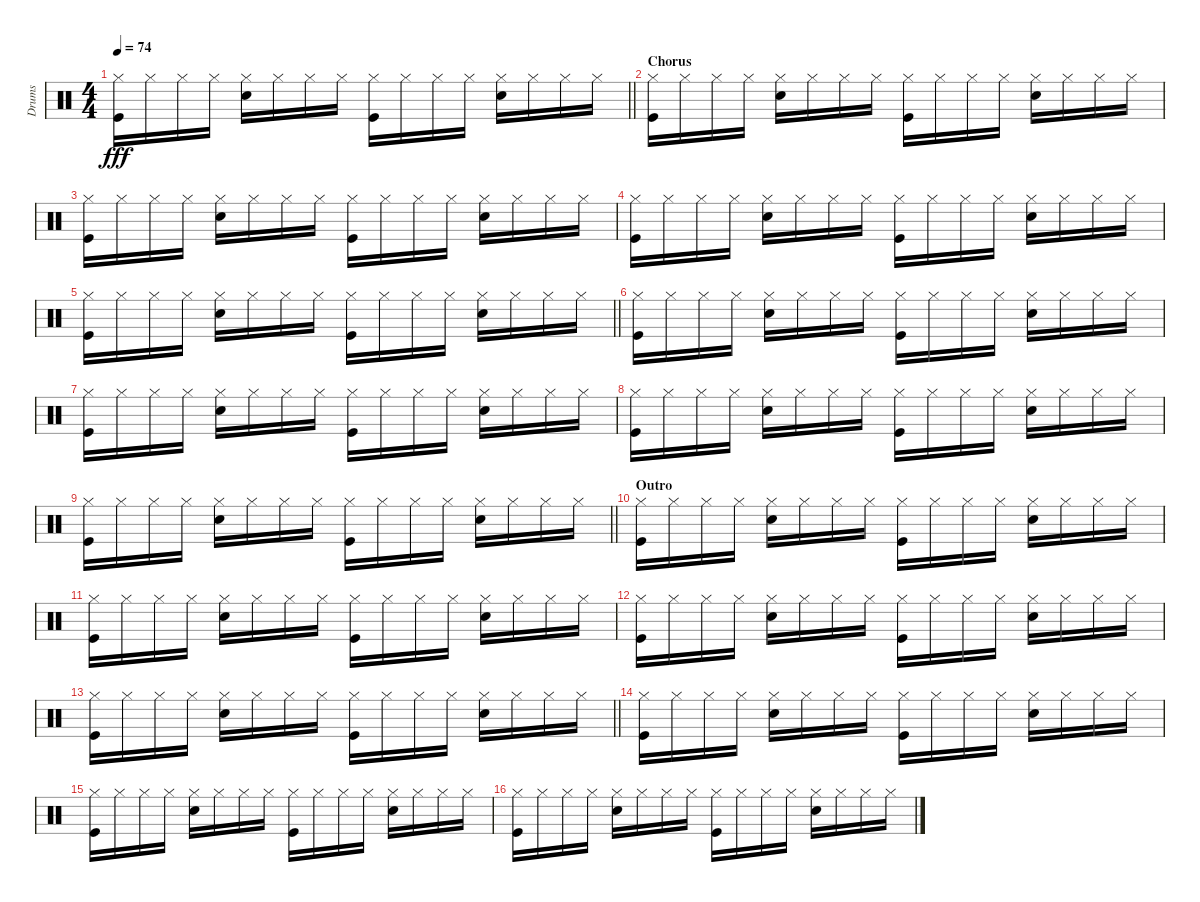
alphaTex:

\track ("Drums" "Drums") {instrument percussion}
\staff {score}
\articulation defaults
\ts (4 4)
\tempo 74
\clef neutral
\barLineRight lightlight
\ks c
("Hi-Hat (closed)" "Kick (hit)").16{dy fff} "Hi-Hat (closed)".16 "Hi-Hat (closed)".16 "Hi-Hat (closed)".16 ("Hi-Hat (closed)" "Snare (hit) 2").16 "Hi-Hat (closed)".16 "Hi-Hat (closed)".16 "Hi-Hat (closed)".16 ("Hi-Hat (closed)" "Kick (hit)").16 "Hi-Hat (closed)".16 "Hi-Hat (closed)".16 "Hi-Hat (closed)".16 ("Hi-Hat (closed)" "Snare (hit) 2").16 "Hi-Hat (closed)".16 "Hi-Hat (closed)".16 "Hi-Hat (closed)".16 |
\section ("" "Chorus")
("Hi-Hat (closed)" "Kick (hit)").16 "Hi-Hat (closed)".16 "Hi-Hat (closed)".16 "Hi-Hat (closed)".16 ("Hi-Hat (closed)" "Snare (hit) 2").16 "Hi-Hat (closed)".16 "Hi-Hat (closed)".16 "Hi-Hat (closed)".16 ("Hi-Hat (closed)" "Kick (hit)").16 "Hi-Hat (closed)".16 "Hi-Hat (closed)".16 "Hi-Hat (closed)".16 ("Hi-Hat (closed)" "Snare (hit) 2").16 "Hi-Hat (closed)".16 "Hi-Hat (closed)".16 "Hi-Hat (closed)".16 |
("Hi-Hat (closed)" "Kick (hit)").16 "Hi-Hat (closed)".16 "Hi-Hat (closed)".16 "Hi-Hat (closed)".16 ("Hi-Hat (closed)" "Snare (hit) 2").16 "Hi-Hat (closed)".16 "Hi-Hat (closed)".16 "Hi-Hat (closed)".16 ("Hi-Hat (closed)" "Kick (hit)").16 "Hi-Hat (closed)".16 "Hi-Hat (closed)".16 "Hi-Hat (closed)".16 ("Hi-Hat (closed)" "Snare (hit) 2").16 "Hi-Hat (closed)".16 "Hi-Hat (closed)".16 "Hi-Hat (closed)".16 |
("Hi-Hat (closed)" "Kick (hit)").16 "Hi-Hat (closed)".16 "Hi-Hat (closed)".16 "Hi-Hat (closed)".16 ("Hi-Hat (closed)" "Snare (hit) 2").16 "Hi-Hat (closed)".16 "Hi-Hat (closed)".16 "Hi-Hat (closed)".16 ("Hi-Hat (closed)" "Kick (hit)").16 "Hi-Hat (closed)".16 "Hi-Hat (closed)".16 "Hi-Hat (closed)".16 ("Hi-Hat (closed)" "Snare (hit) 2").16 "Hi-Hat (closed)".16 "Hi-Hat (closed)".16 "Hi-Hat (closed)".16 |
\barLineRight lightlight
("Hi-Hat (closed)" "Kick (hit)").16 "Hi-Hat (closed)".16 "Hi-Hat (closed)".16 "Hi-Hat (closed)".16 ("Hi-Hat (closed)" "Snare (hit) 2").16 "Hi-Hat (closed)".16 "Hi-Hat (closed)".16 "Hi-Hat (closed)".16 ("Hi-Hat (closed)" "Kick (hit)").16 "Hi-Hat (closed)".16 "Hi-Hat (closed)".16 "Hi-Hat (closed)".16 ("Hi-Hat (closed)" "Snare (hit) 2").16 "Hi-Hat (closed)".16 "Hi-Hat (closed)".16 "Hi-Hat (closed)".16 |
("Hi-Hat (closed)" "Kick (hit)").16 "Hi-Hat (closed)".16 "Hi-Hat (closed)".16 "Hi-Hat (closed)".16 ("Hi-Hat (closed)" "Snare (hit) 2").16 "Hi-Hat (closed)".16 "Hi-Hat (closed)".16 "Hi-Hat (closed)".16 ("Hi-Hat (closed)" "Kick (hit)").16 "Hi-Hat (closed)".16 "Hi-Hat (closed)".16 "Hi-Hat (closed)".16 ("Hi-Hat (closed)" "Snare (hit) 2").16 "Hi-Hat (closed)".16 "Hi-Hat (closed)".16 "Hi-Hat (closed)".16 |
("Hi-Hat (closed)" "Kick (hit)").16 "Hi-Hat (closed)".16 "Hi-Hat (closed)".16 "Hi-Hat (closed)".16 ("Hi-Hat (closed)" "Snare (hit) 2").16 "Hi-Hat (closed)".16 "Hi-Hat (closed)".16 "Hi-Hat (closed)".16 ("Hi-Hat (closed)" "Kick (hit)").16 "Hi-Hat (closed)".16 "Hi-Hat (closed)".16 "Hi-Hat (closed)".16 ("Hi-Hat (closed)" "Snare (hit) 2").16 "Hi-Hat (closed)".16 "Hi-Hat (closed)".16 "Hi-Hat (closed)".16 |
("Hi-Hat (closed)" "Kick (hit)").16 "Hi-Hat (closed)".16 "Hi-Hat (closed)".16 "Hi-Hat (closed)".16 ("Hi-Hat (closed)" "Snare (hit) 2").16 "Hi-Hat (closed)".16 "Hi-Hat (closed)".16 "Hi-Hat (closed)".16 ("Hi-Hat (closed)" "Kick (hit)").16 "Hi-Hat (closed)".16 "Hi-Hat (closed)".16 "Hi-Hat (closed)".16 ("Hi-Hat (closed)" "Snare (hit) 2").16 "Hi-Hat (closed)".16 "Hi-Hat (closed)".16 "Hi-Hat (closed)".16 |
\barLineRight lightlight
("Hi-Hat (closed)" "Kick (hit)").16 "Hi-Hat (closed)".16 "Hi-Hat (closed)".16 "Hi-Hat (closed)".16 ("Hi-Hat (closed)" "Snare (hit) 2").16 "Hi-Hat (closed)".16 "Hi-Hat (closed)".16 "Hi-Hat (closed)".16 ("Hi-Hat (closed)" "Kick (hit)").16 "Hi-Hat (closed)".16 "Hi-Hat (closed)".16 "Hi-Hat (closed)".16 ("Hi-Hat (closed)" "Snare (hit) 2").16 "Hi-Hat (closed)".16 "Hi-Hat (closed)".16 "Hi-Hat (closed)".16 |
\section ("" "Outro")
("Hi-Hat (closed)" "Kick (hit)").16 "Hi-Hat (closed)".16 "Hi-Hat (closed)".16 "Hi-Hat (closed)".16 ("Hi-Hat (closed)" "Snare (hit) 2").16 "Hi-Hat (closed)".16 "Hi-Hat (closed)".16 "Hi-Hat (closed)".16 ("Hi-Hat (closed)" "Kick (hit)").16 "Hi-Hat (closed)".16 "Hi-Hat (closed)".16 "Hi-Hat (closed)".16 ("Hi-Hat (closed)" "Snare (hit) 2").16 "Hi-Hat (closed)".16 "Hi-Hat (closed)".16 "Hi-Hat (closed)".16 |
("Hi-Hat (closed)" "Kick (hit)").16 "Hi-Hat (closed)".16 "Hi-Hat (closed)".16 "Hi-Hat (closed)".16 ("Hi-Hat (closed)" "Snare (hit) 2").16 "Hi-Hat (closed)".16 "Hi-Hat (closed)".16 "Hi-Hat (closed)".16 ("Hi-Hat (closed)" "Kick (hit)").16 "Hi-Hat (closed)".16 "Hi-Hat (closed)".16 "Hi-Hat (closed)".16 ("Hi-Hat (closed)" "Snare (hit) 2").16 "Hi-Hat (closed)".16 "Hi-Hat (closed)".16 "Hi-Hat (closed)".16 |
("Hi-Hat (closed)" "Kick (hit)").16 "Hi-Hat (closed)".16 "Hi-Hat (closed)".16 "Hi-Hat (closed)".16 ("Hi-Hat (closed)" "Snare (hit) 2").16 "Hi-Hat (closed)".16 "Hi-Hat (closed)".16 "Hi-Hat (closed)".16 ("Hi-Hat (closed)" "Kick (hit)").16 "Hi-Hat (closed)".16 "Hi-Hat (closed)".16 "Hi-Hat (closed)".16 ("Hi-Hat (closed)" "Snare (hit) 2").16 "Hi-Hat (closed)".16 "Hi-Hat (closed)".16 "Hi-Hat (closed)".16 |
\barLineRight lightlight
("Hi-Hat (closed)" "Kick (hit)").16 "Hi-Hat (closed)".16 "Hi-Hat (closed)".16 "Hi-Hat (closed)".16 ("Hi-Hat (closed)" "Snare (hit) 2").16 "Hi-Hat (closed)".16 "Hi-Hat (closed)".16 "Hi-Hat (closed)".16 ("Hi-Hat (closed)" "Kick (hit)").16 "Hi-Hat (closed)".16 "Hi-Hat (closed)".16 "Hi-Hat (closed)".16 ("Hi-Hat (closed)" "Snare (hit) 2").16 "Hi-Hat (closed)".16 "Hi-Hat (closed)".16 "Hi-Hat (closed)".16 |
("Hi-Hat (closed)" "Kick (hit)").16{volume 5} "Hi-Hat (closed)".16 "Hi-Hat (closed)".16 "Hi-Hat (closed)".16 ("Hi-Hat (closed)" "Snare (hit) 2").16 "Hi-Hat (closed)".16 "Hi-Hat (closed)".16 "Hi-Hat (closed)".16 ("Hi-Hat (closed)" "Kick (hit)").16 "Hi-Hat (closed)".16 "Hi-Hat (closed)".16 "Hi-Hat (closed)".16 ("Hi-Hat (closed)" "Snare (hit) 2").16 "Hi-Hat (closed)".16 "Hi-Hat (closed)".16 "Hi-Hat (closed)".16 |
("Hi-Hat (closed)" "Kick (hit)").16 "Hi-Hat (closed)".16 "Hi-Hat (closed)".16 "Hi-Hat (closed)".16 ("Hi-Hat (closed)" "Snare (hit) 2").16 "Hi-Hat (closed)".16 "Hi-Hat (closed)".16 "Hi-Hat (closed)".16 ("Hi-Hat (closed)" "Kick (hit)").16 "Hi-Hat (closed)".16 "Hi-Hat (closed)".16 "Hi-Hat (closed)".16 ("Hi-Hat (closed)" "Snare (hit) 2").16 "Hi-Hat (closed)".16 "Hi-Hat (closed)".16 "Hi-Hat (closed)".16 |
("Hi-Hat (closed)" "Kick (hit)").16 "Hi-Hat (closed)".16 "Hi-Hat (closed)".16 "Hi-Hat (closed)".16 ("Hi-Hat (closed)" "Snare (hit) 2").16 "Hi-Hat (closed)".16 "Hi-Hat (closed)".16 "Hi-Hat (closed)".16 ("Hi-Hat (closed)" "Kick (hit)").16 "Hi-Hat (closed)".16 "Hi-Hat (closed)".16 "Hi-Hat (closed)".16 ("Hi-Hat (closed)" "Snare (hit) 2").16 "Hi-Hat (closed)".16 "Hi-Hat (closed)".16 "Hi-Hat (closed)".16
